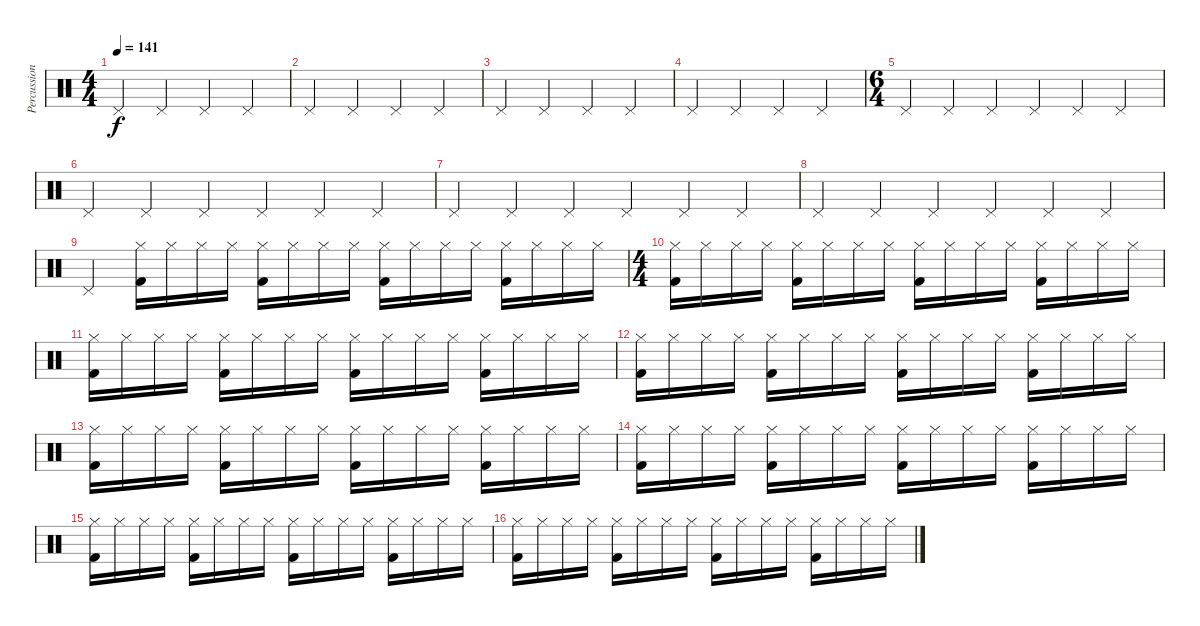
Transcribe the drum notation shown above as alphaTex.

\track ("Percussion" "Percussion") {instrument percussion}
\staff {score}
\articulation defaults
\ts (4 4)
\tempo 141
\clef neutral
\ks c "Pedal Hi-Hat (hit)".4{dy f} "Pedal Hi-Hat (hit)".4 "Pedal Hi-Hat (hit)".4 "Pedal Hi-Hat (hit)".4
|
"Pedal Hi-Hat (hit)".4 "Pedal Hi-Hat (hit)".4 "Pedal Hi-Hat (hit)".4 "Pedal Hi-Hat (hit)".4 |
"Pedal Hi-Hat (hit)".4 "Pedal Hi-Hat (hit)".4 "Pedal Hi-Hat (hit)".4 "Pedal Hi-Hat (hit)".4 |
"Pedal Hi-Hat (hit)".4 "Pedal Hi-Hat (hit)".4 "Pedal Hi-Hat (hit)".4 "Pedal Hi-Hat (hit)".4 |
\ts (6 4)
"Pedal Hi-Hat (hit)".4 "Pedal Hi-Hat (hit)".4 "Pedal Hi-Hat (hit)".4 "Pedal Hi-Hat (hit)".4 "Pedal Hi-Hat (hit)".4 "Pedal Hi-Hat (hit)".4 |
"Pedal Hi-Hat (hit)".4 "Pedal Hi-Hat (hit)".4 "Pedal Hi-Hat (hit)".4 "Pedal Hi-Hat (hit)".4 "Pedal Hi-Hat (hit)".4 "Pedal Hi-Hat (hit)".4 |
"Pedal Hi-Hat (hit)".4 "Pedal Hi-Hat (hit)".4 "Pedal Hi-Hat (hit)".4 "Pedal Hi-Hat (hit)".4 "Pedal Hi-Hat (hit)".4 "Pedal Hi-Hat (hit)".4 |
"Pedal Hi-Hat (hit)".4 "Pedal Hi-Hat (hit)".4 "Pedal Hi-Hat (hit)".4 "Pedal Hi-Hat (hit)".4 "Pedal Hi-Hat (hit)".4 "Pedal Hi-Hat (hit)".4 |
"Pedal Hi-Hat (hit)".2 ("Hi-Hat (closed)" "Kick (hit) 2").16 "Hi-Hat (closed)".16 "Hi-Hat (closed)".16 "Hi-Hat (closed)".16 ("Hi-Hat (closed)" "Kick (hit) 2").16 "Hi-Hat (closed)".16 "Hi-Hat (closed)".16 "Hi-Hat (closed)".16 ("Hi-Hat (closed)" "Kick (hit) 2").16 "Hi-Hat (closed)".16 "Hi-Hat (closed)".16 "Hi-Hat (closed)".16 ("Hi-Hat (closed)" "Kick (hit) 2").16 "Hi-Hat (closed)".16 "Hi-Hat (closed)".16 "Hi-Hat (closed)".16 |
\ts (4 4)
("Hi-Hat (closed)" "Kick (hit) 2").16 "Hi-Hat (closed)".16 "Hi-Hat (closed)".16 "Hi-Hat (closed)".16 ("Hi-Hat (closed)" "Kick (hit) 2").16 "Hi-Hat (closed)".16 "Hi-Hat (closed)".16 "Hi-Hat (closed)".16 ("Hi-Hat (closed)" "Kick (hit) 2").16 "Hi-Hat (closed)".16 "Hi-Hat (closed)".16 "Hi-Hat (closed)".16 ("Hi-Hat (closed)" "Kick (hit) 2").16 "Hi-Hat (closed)".16 "Hi-Hat (closed)".16 "Hi-Hat (closed)".16 |
("Hi-Hat (closed)" "Kick (hit) 2").16 "Hi-Hat (closed)".16 "Hi-Hat (closed)".16 "Hi-Hat (closed)".16 ("Hi-Hat (closed)" "Kick (hit) 2").16 "Hi-Hat (closed)".16 "Hi-Hat (closed)".16 "Hi-Hat (closed)".16 ("Hi-Hat (closed)" "Kick (hit) 2").16 "Hi-Hat (closed)".16 "Hi-Hat (closed)".16 "Hi-Hat (closed)".16 ("Hi-Hat (closed)" "Kick (hit) 2").16 "Hi-Hat (closed)".16 "Hi-Hat (closed)".16 "Hi-Hat (closed)".16 |
("Hi-Hat (closed)" "Kick (hit) 2").16 "Hi-Hat (closed)".16 "Hi-Hat (closed)".16 "Hi-Hat (closed)".16 ("Hi-Hat (closed)" "Kick (hit) 2").16 "Hi-Hat (closed)".16 "Hi-Hat (closed)".16 "Hi-Hat (closed)".16 ("Hi-Hat (closed)" "Kick (hit) 2").16 "Hi-Hat (closed)".16 "Hi-Hat (closed)".16 "Hi-Hat (closed)".16 ("Hi-Hat (closed)" "Kick (hit) 2").16 "Hi-Hat (closed)".16 "Hi-Hat (closed)".16 "Hi-Hat (closed)".16 |
("Hi-Hat (closed)" "Kick (hit) 2").16 "Hi-Hat (closed)".16 "Hi-Hat (closed)".16 "Hi-Hat (closed)".16 ("Hi-Hat (closed)" "Kick (hit) 2").16 "Hi-Hat (closed)".16 "Hi-Hat (closed)".16 "Hi-Hat (closed)".16 ("Hi-Hat (closed)" "Kick (hit) 2").16 "Hi-Hat (closed)".16 "Hi-Hat (closed)".16 "Hi-Hat (closed)".16 ("Hi-Hat (closed)" "Kick (hit) 2").16 "Hi-Hat (closed)".16 "Hi-Hat (closed)".16 "Hi-Hat (closed)".16 |
("Hi-Hat (closed)" "Kick (hit) 2").16 "Hi-Hat (closed)".16 "Hi-Hat (closed)".16 "Hi-Hat (closed)".16 ("Hi-Hat (closed)" "Kick (hit) 2").16 "Hi-Hat (closed)".16 "Hi-Hat (closed)".16 "Hi-Hat (closed)".16 ("Hi-Hat (closed)" "Kick (hit) 2").16 "Hi-Hat (closed)".16 "Hi-Hat (closed)".16 "Hi-Hat (closed)".16 ("Hi-Hat (closed)" "Kick (hit) 2").16 "Hi-Hat (closed)".16 "Hi-Hat (closed)".16 "Hi-Hat (closed)".16 |
("Hi-Hat (closed)" "Kick (hit) 2").16 "Hi-Hat (closed)".16 "Hi-Hat (closed)".16 "Hi-Hat (closed)".16 ("Hi-Hat (closed)" "Kick (hit) 2").16 "Hi-Hat (closed)".16 "Hi-Hat (closed)".16 "Hi-Hat (closed)".16 ("Hi-Hat (closed)" "Kick (hit) 2").16 "Hi-Hat (closed)".16 "Hi-Hat (closed)".16 "Hi-Hat (closed)".16 ("Hi-Hat (closed)" "Kick (hit) 2").16 "Hi-Hat (closed)".16 "Hi-Hat (closed)".16 "Hi-Hat (closed)".16 |
("Hi-Hat (closed)" "Kick (hit) 2").16 "Hi-Hat (closed)".16 "Hi-Hat (closed)".16 "Hi-Hat (closed)".16 ("Hi-Hat (closed)" "Kick (hit) 2").16 "Hi-Hat (closed)".16 "Hi-Hat (closed)".16 "Hi-Hat (closed)".16 ("Hi-Hat (closed)" "Kick (hit) 2").16 "Hi-Hat (closed)".16 "Hi-Hat (closed)".16 "Hi-Hat (closed)".16 ("Hi-Hat (closed)" "Kick (hit) 2").16 "Hi-Hat (closed)".16 "Hi-Hat (closed)".16 "Hi-Hat (closed)".16
